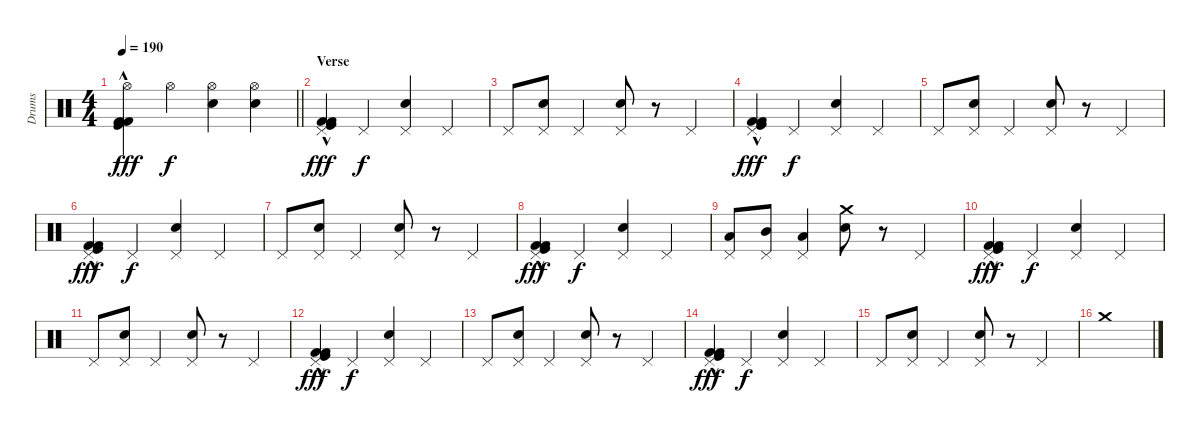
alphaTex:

\track ("Drums" "Drums") {instrument percussion}
\staff {score}
\articulation defaults
\ts (4 4)
\tempo 190
\clef neutral
\barLineRight lightlight
\ks c
("Hi-Hat (open)" "Kick (hit) 2"{hac} "Kick (hit)"{hac} "Kick (hit) 2"{hac}).4{dy fff} "Hi-Hat (open)".4{dy f} ("Hi-Hat (open)" "Snare (hit) 2").4 ("Hi-Hat (open)" "Snare (hit) 2").4 |
\section ("" "Verse")
("Pedal Hi-Hat (hit)" "Kick (hit) 2"{hac} "Kick (hit)"{hac} "Kick (hit) 2"{hac}).4{dy fff} "Pedal Hi-Hat (hit)".4{dy f} ("Pedal Hi-Hat (hit)" "Snare (hit) 2").4 "Pedal Hi-Hat (hit)".4 |
"Pedal Hi-Hat (hit)".8 ("Pedal Hi-Hat (hit)" "Snare (hit) 2").8 "Pedal Hi-Hat (hit)".4 ("Pedal Hi-Hat (hit)" "Snare (hit) 2").8 r.8 "Pedal Hi-Hat (hit)".4 |
("Pedal Hi-Hat (hit)" "Kick (hit) 2"{hac} "Kick (hit)"{hac} "Kick (hit) 2"{hac}).4{dy fff} "Pedal Hi-Hat (hit)".4{dy f} ("Pedal Hi-Hat (hit)" "Snare (hit) 2").4 "Pedal Hi-Hat (hit)".4 |
"Pedal Hi-Hat (hit)".8 ("Pedal Hi-Hat (hit)" "Snare (hit) 2").8 "Pedal Hi-Hat (hit)".4 ("Pedal Hi-Hat (hit)" "Snare (hit) 2").8 r.8 "Pedal Hi-Hat (hit)".4 |
("Pedal Hi-Hat (hit)" "Kick (hit) 2"{hac} "Kick (hit)"{hac} "Kick (hit) 2"{hac}).4{dy fff} "Pedal Hi-Hat (hit)".4{dy f} ("Pedal Hi-Hat (hit)" "Snare (hit) 2").4 "Pedal Hi-Hat (hit)".4 |
"Pedal Hi-Hat (hit)".8 ("Pedal Hi-Hat (hit)" "Snare (hit) 2").8 "Pedal Hi-Hat (hit)".4 ("Pedal Hi-Hat (hit)" "Snare (hit) 2").8 r.8 "Pedal Hi-Hat (hit)".4 |
("Pedal Hi-Hat (hit)" "Kick (hit) 2"{hac} "Kick (hit)"{hac} "Kick (hit) 2"{hac}).4{dy fff} "Pedal Hi-Hat (hit)".4{dy f} ("Pedal Hi-Hat (hit)" "Snare (hit) 2").4 "Pedal Hi-Hat (hit)".4 |
("Pedal Hi-Hat (hit)" "Low Tom (hit)").8 ("Pedal Hi-Hat (hit)" "Mid Tom (hit)").8 ("Pedal Hi-Hat (hit)" "Low Tom (hit)").4 ("Crash medium (hit)" "Snare (hit) 2").8 r.8 "Pedal Hi-Hat (hit)".4 |
("Pedal Hi-Hat (hit)" "Kick (hit) 2"{hac} "Kick (hit)"{hac} "Kick (hit) 2"{hac}).4{dy fff} "Pedal Hi-Hat (hit)".4{dy f} ("Pedal Hi-Hat (hit)" "Snare (hit) 2").4 "Pedal Hi-Hat (hit)".4 |
"Pedal Hi-Hat (hit)".8 ("Pedal Hi-Hat (hit)" "Snare (hit) 2").8 "Pedal Hi-Hat (hit)".4 ("Pedal Hi-Hat (hit)" "Snare (hit) 2").8 r.8 "Pedal Hi-Hat (hit)".4 |
("Pedal Hi-Hat (hit)" "Kick (hit) 2"{hac} "Kick (hit)"{hac} "Kick (hit) 2"{hac}).4{dy fff} "Pedal Hi-Hat (hit)".4{dy f} ("Pedal Hi-Hat (hit)" "Snare (hit) 2").4 "Pedal Hi-Hat (hit)".4 |
"Pedal Hi-Hat (hit)".8 ("Pedal Hi-Hat (hit)" "Snare (hit) 2").8 "Pedal Hi-Hat (hit)".4 ("Pedal Hi-Hat (hit)" "Snare (hit) 2").8 r.8 "Pedal Hi-Hat (hit)".4 |
("Pedal Hi-Hat (hit)" "Kick (hit) 2"{hac} "Kick (hit)"{hac} "Kick (hit) 2"{hac}).4{dy fff} "Pedal Hi-Hat (hit)".4{dy f} ("Pedal Hi-Hat (hit)" "Snare (hit) 2").4 "Pedal Hi-Hat (hit)".4 |
"Pedal Hi-Hat (hit)".8 ("Pedal Hi-Hat (hit)" "Snare (hit) 2").8 "Pedal Hi-Hat (hit)".4 ("Pedal Hi-Hat (hit)" "Snare (hit) 2").8 r.8 "Pedal Hi-Hat (hit)".4 |
"Crash medium (hit)".1
